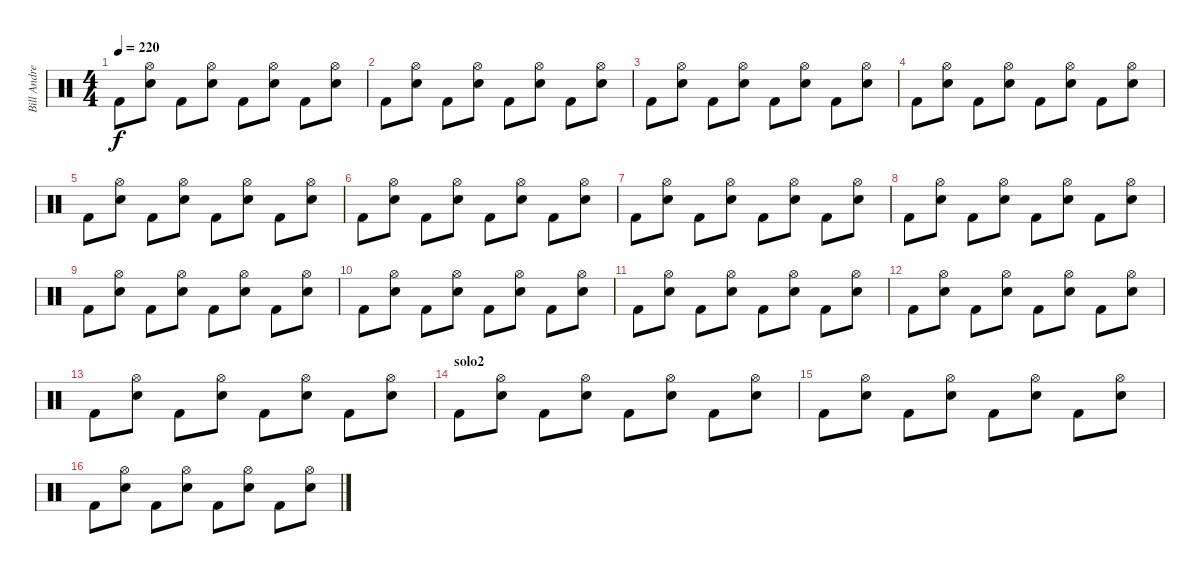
\track ("Bill Andrews" "Bill Andre") {instrument percussion}
\staff {score}
\articulation defaults
\ts (4 4)
\tempo 220
\clef neutral
\ks c "Kick (hit) 2".8{dy f}
("Hi-Hat (open)" "Snare (hit) 2").8 "Kick (hit) 2".8 ("Hi-Hat (open)" "Snare (hit) 2").8 "Kick (hit) 2".8 ("Hi-Hat (open)" "Snare (hit) 2").8 "Kick (hit) 2".8 ("Hi-Hat (open)" "Snare (hit) 2").8 |
"Kick (hit) 2".8 ("Hi-Hat (open)" "Snare (hit) 2").8 "Kick (hit) 2".8 ("Hi-Hat (open)" "Snare (hit) 2").8 "Kick (hit) 2".8 ("Hi-Hat (open)" "Snare (hit) 2").8 "Kick (hit) 2".8 ("Hi-Hat (open)" "Snare (hit) 2").8 |
"Kick (hit) 2".8 ("Hi-Hat (open)" "Snare (hit) 2").8 "Kick (hit) 2".8 ("Hi-Hat (open)" "Snare (hit) 2").8 "Kick (hit) 2".8 ("Hi-Hat (open)" "Snare (hit) 2").8 "Kick (hit) 2".8 ("Hi-Hat (open)" "Snare (hit) 2").8 |
"Kick (hit) 2".8 ("Hi-Hat (open)" "Snare (hit) 2").8 "Kick (hit) 2".8 ("Hi-Hat (open)" "Snare (hit) 2").8 "Kick (hit) 2".8 ("Hi-Hat (open)" "Snare (hit) 2").8 "Kick (hit) 2".8 ("Hi-Hat (open)" "Snare (hit) 2").8 |
"Kick (hit) 2".8 ("Hi-Hat (open)" "Snare (hit) 2").8 "Kick (hit) 2".8 ("Hi-Hat (open)" "Snare (hit) 2").8 "Kick (hit) 2".8 ("Hi-Hat (open)" "Snare (hit) 2").8 "Kick (hit) 2".8 ("Hi-Hat (open)" "Snare (hit) 2").8 |
"Kick (hit) 2".8 ("Hi-Hat (open)" "Snare (hit) 2").8 "Kick (hit) 2".8 ("Hi-Hat (open)" "Snare (hit) 2").8 "Kick (hit) 2".8 ("Hi-Hat (open)" "Snare (hit) 2").8 "Kick (hit) 2".8 ("Hi-Hat (open)" "Snare (hit) 2").8 |
"Kick (hit) 2".8 ("Hi-Hat (open)" "Snare (hit) 2").8 "Kick (hit) 2".8 ("Hi-Hat (open)" "Snare (hit) 2").8 "Kick (hit) 2".8 ("Hi-Hat (open)" "Snare (hit) 2").8 "Kick (hit) 2".8 ("Hi-Hat (open)" "Snare (hit) 2").8 |
"Kick (hit) 2".8 ("Hi-Hat (open)" "Snare (hit) 2").8 "Kick (hit) 2".8 ("Hi-Hat (open)" "Snare (hit) 2").8 "Kick (hit) 2".8 ("Hi-Hat (open)" "Snare (hit) 2").8 "Kick (hit) 2".8 ("Hi-Hat (open)" "Snare (hit) 2").8 |
"Kick (hit) 2".8 ("Hi-Hat (open)" "Snare (hit) 2").8 "Kick (hit) 2".8 ("Hi-Hat (open)" "Snare (hit) 2").8 "Kick (hit) 2".8 ("Hi-Hat (open)" "Snare (hit) 2").8 "Kick (hit) 2".8 ("Hi-Hat (open)" "Snare (hit) 2").8 |
"Kick (hit) 2".8 ("Hi-Hat (open)" "Snare (hit) 2").8 "Kick (hit) 2".8 ("Hi-Hat (open)" "Snare (hit) 2").8 "Kick (hit) 2".8 ("Hi-Hat (open)" "Snare (hit) 2").8 "Kick (hit) 2".8 ("Hi-Hat (open)" "Snare (hit) 2").8 |
"Kick (hit) 2".8 ("Hi-Hat (open)" "Snare (hit) 2").8 "Kick (hit) 2".8 ("Hi-Hat (open)" "Snare (hit) 2").8 "Kick (hit) 2".8 ("Hi-Hat (open)" "Snare (hit) 2").8 "Kick (hit) 2".8 ("Hi-Hat (open)" "Snare (hit) 2").8 |
"Kick (hit) 2".8 ("Hi-Hat (open)" "Snare (hit) 2").8 "Kick (hit) 2".8 ("Hi-Hat (open)" "Snare (hit) 2").8 "Kick (hit) 2".8 ("Hi-Hat (open)" "Snare (hit) 2").8 "Kick (hit) 2".8 ("Hi-Hat (open)" "Snare (hit) 2").8 |
"Kick (hit) 2".8 ("Hi-Hat (open)" "Snare (hit) 2").8 "Kick (hit) 2".8 ("Hi-Hat (open)" "Snare (hit) 2").8 "Kick (hit) 2".8 ("Hi-Hat (open)" "Snare (hit) 2").8 "Kick (hit) 2".8 ("Hi-Hat (open)" "Snare (hit) 2").8 |
\section ("" "solo2")
"Kick (hit) 2".8 ("Hi-Hat (open)" "Snare (hit) 2").8 "Kick (hit) 2".8 ("Hi-Hat (open)" "Snare (hit) 2").8 "Kick (hit) 2".8 ("Hi-Hat (open)" "Snare (hit) 2").8 "Kick (hit) 2".8 ("Hi-Hat (open)" "Snare (hit) 2").8 |
"Kick (hit) 2".8 ("Hi-Hat (open)" "Snare (hit) 2").8 "Kick (hit) 2".8 ("Hi-Hat (open)" "Snare (hit) 2").8 "Kick (hit) 2".8 ("Hi-Hat (open)" "Snare (hit) 2").8 "Kick (hit) 2".8 ("Hi-Hat (open)" "Snare (hit) 2").8 |
"Kick (hit) 2".8 ("Hi-Hat (open)" "Snare (hit) 2").8 "Kick (hit) 2".8 ("Hi-Hat (open)" "Snare (hit) 2").8 "Kick (hit) 2".8 ("Hi-Hat (open)" "Snare (hit) 2").8 "Kick (hit) 2".8 ("Hi-Hat (open)" "Snare (hit) 2").8
